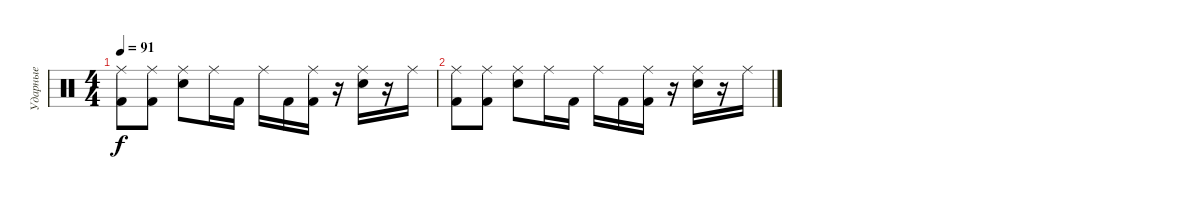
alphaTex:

\track ("Ударные" "Ударные") {instrument percussion}
\staff {score}
\articulation defaults
\ts (4 4)
\tempo 91
\clef neutral
\ks c
("Ride (middle)" "Kick (hit) 2").8{dy f} ("Ride (middle)" "Kick (hit) 2").8 ("Ride (middle)" "Electric Snare (hit)").8 "Ride (middle)".16 "Kick (hit) 2".16 "Ride (middle)".16 "Kick (hit) 2".16 ("Ride (middle)" "Kick (hit) 2").16 r.16 ("Ride (middle)" "Electric Snare (hit)").16 r.16 "Ride (middle)".16 |
("Ride (middle)" "Kick (hit) 2").8 ("Ride (middle)" "Kick (hit) 2").8 ("Ride (middle)" "Electric Snare (hit)").8 "Ride (middle)".16 "Kick (hit) 2".16 "Ride (middle)".16 "Kick (hit) 2".16 ("Ride (middle)" "Kick (hit) 2").16 r.16 ("Ride (middle)" "Electric Snare (hit)").16 r.16 "Ride (middle)".16
